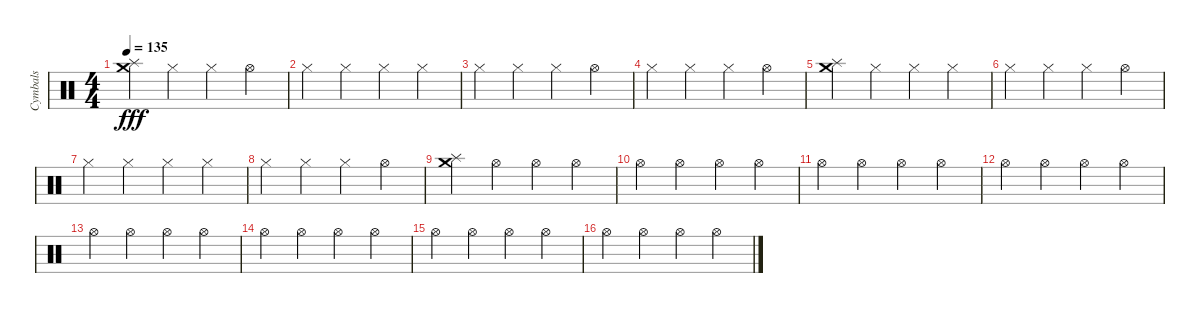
\track ("Cymbals" "Cymbals") {instrument percussion}
\staff {score}
\articulation defaults
\ts (4 4)
\tempo 135
\clef neutral
\ks c
("Crash medium (hit)" "Splash (hit)").4{dy fff} "Hi-Hat (closed)".4 "Hi-Hat (closed)".4 "Hi-Hat (open)".4 |
"Hi-Hat (closed)".4 "Hi-Hat (closed)".4 "Hi-Hat (closed)".4 "Hi-Hat (closed)".4 |
"Hi-Hat (closed)".4 "Hi-Hat (closed)".4 "Hi-Hat (closed)".4 "Hi-Hat (open)".4 |
"Hi-Hat (closed)".4 "Hi-Hat (closed)".4 "Hi-Hat (closed)".4 "Hi-Hat (open)".4 |
("Crash medium (hit)" "Splash (hit)").4 "Hi-Hat (closed)".4 "Hi-Hat (closed)".4 "Hi-Hat (closed)".4 |
"Hi-Hat (closed)".4 "Hi-Hat (closed)".4 "Hi-Hat (closed)".4 "Hi-Hat (open)".4 |
"Hi-Hat (closed)".4 "Hi-Hat (closed)".4 "Hi-Hat (closed)".4 "Hi-Hat (closed)".4 |
"Hi-Hat (closed)".4 "Hi-Hat (closed)".4 "Hi-Hat (closed)".4 "Hi-Hat (open)".4 |
("Crash medium (hit)" "Splash (hit)").4 "Hi-Hat (open)".4 "Hi-Hat (open)".4 "Hi-Hat (open)".4 |
"Hi-Hat (open)".4 "Hi-Hat (open)".4 "Hi-Hat (open)".4 "Hi-Hat (open)".4 |
"Hi-Hat (open)".4 "Hi-Hat (open)".4 "Hi-Hat (open)".4 "Hi-Hat (open)".4 |
"Hi-Hat (open)".4 "Hi-Hat (open)".4 "Hi-Hat (open)".4 "Hi-Hat (open)".4 |
"Hi-Hat (open)".4 "Hi-Hat (open)".4 "Hi-Hat (open)".4 "Hi-Hat (open)".4 |
"Hi-Hat (open)".4 "Hi-Hat (open)".4 "Hi-Hat (open)".4 "Hi-Hat (open)".4 |
"Hi-Hat (open)".4 "Hi-Hat (open)".4 "Hi-Hat (open)".4 "Hi-Hat (open)".4 |
"Hi-Hat (open)".4 "Hi-Hat (open)".4 "Hi-Hat (open)".4 "Hi-Hat (open)".4
